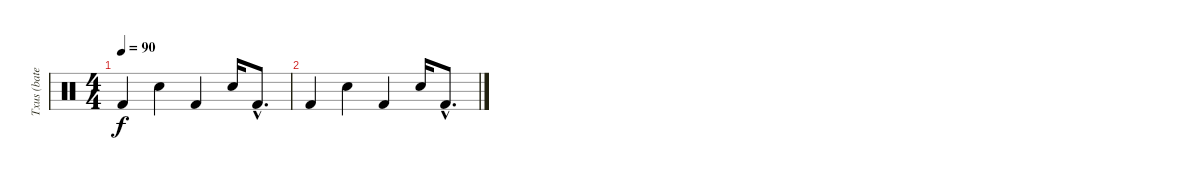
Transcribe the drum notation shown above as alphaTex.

\track ("Txus (bateria)" "Txus (bate") {instrument percussion}
\staff {score}
\articulation defaults
\ts (4 4)
\tempo 90
\clef neutral
\ks c "Kick (hit) 2".4{dy f} "Snare (hit) 2".4 "Kick (hit) 2".4 "Snare (hit) 2".16 "Kick (hit) 2"{hac}.8{d}
|
"Kick (hit) 2".4 "Snare (hit) 2".4 "Kick (hit) 2".4 "Snare (hit) 2".16 "Kick (hit) 2"{hac}.8{d}
